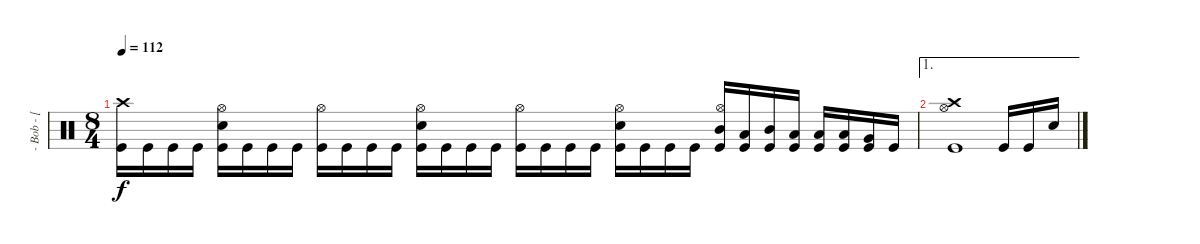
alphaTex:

\track ("- Bob - [ Drum ]" "- Bob - [ ") {instrument percussion}
\staff {score}
\articulation defaults
\ts (8 4)
\tempo 112
\clef neutral
\ks c
("Kick (hit)" "Crash high (hit)").16{dy f} "Kick (hit)".16 "Kick (hit)".16 "Kick (hit)".16 ("Kick (hit)" "Snare (hit) 2" "Hi-Hat (open)").16 "Kick (hit)".16 "Kick (hit)".16 "Kick (hit)".16 ("Kick (hit)" "Hi-Hat (open)").16 "Kick (hit)".16 "Kick (hit)".16 "Kick (hit)".16 ("Kick (hit)" "Snare (hit) 2" "Hi-Hat (open)").16 "Kick (hit)".16 "Kick (hit)".16 "Kick (hit)".16 ("Kick (hit)" "Hi-Hat (open)").16 "Kick (hit)".16 "Kick (hit)".16 "Kick (hit)".16 ("Kick (hit)" "Snare (hit) 2" "Hi-Hat (open)").16 "Kick (hit)".16 "Kick (hit)".16 "Kick (hit)".16 ("Kick (hit)" "Mid Tom (hit)" "Hi-Hat (open)").16 ("Kick (hit)" "Low Tom (hit)").16 ("Kick (hit)" "Mid Tom (hit)").16 ("Kick (hit)" "Low Tom (hit)").16 ("Kick (hit)" "Low Tom (hit)").16 ("Kick (hit)" "Low Tom (hit)").16 ("Kick (hit)" "Very Low Tom (hit)").16 "Kick (hit)".16 |
\ae 1
("Kick (hit)" "Hi-Hat (open)" "Crash high (hit)").1 "Kick (hit)".16 "Kick (hit)".16 "Snare (hit) 2".16
